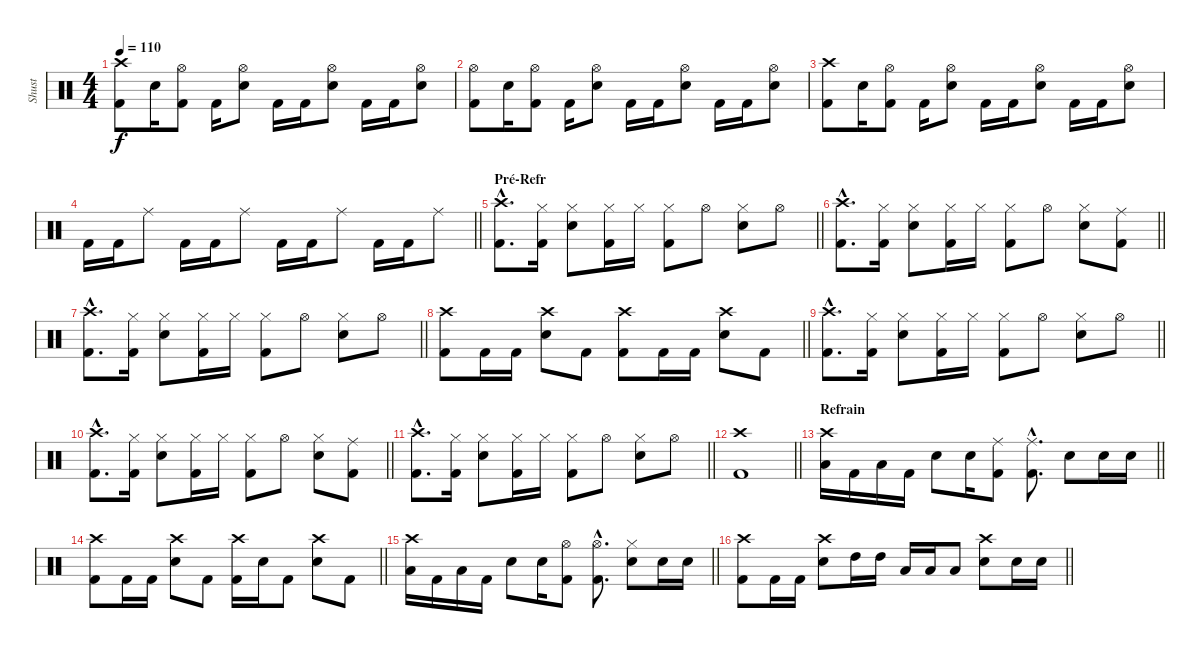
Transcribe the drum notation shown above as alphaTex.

\track ("Shust" "Shust") {instrument percussion}
\staff {score}
\articulation defaults
\ts (4 4)
\tempo 110
\clef neutral
\ks c
("Crash high (hit)" "Kick (hit) 2").8{dy f} "Electric Snare (hit)".16 ("Hi-Hat (open)" "Kick (hit) 2").8 "Kick (hit) 2".16 ("Hi-Hat (open)" "Electric Snare (hit)").8 "Kick (hit) 2".16 "Kick (hit) 2".16 ("Hi-Hat (open)" "Electric Snare (hit)").8 "Kick (hit) 2".16 "Kick (hit) 2".16 ("Hi-Hat (open)" "Electric Snare (hit)").8 |
("Hi-Hat (open)" "Kick (hit) 2").8 "Electric Snare (hit)".16 ("Hi-Hat (open)" "Kick (hit) 2").8 "Kick (hit) 2".16 ("Hi-Hat (open)" "Electric Snare (hit)").8 "Kick (hit) 2".16 "Kick (hit) 2".16 ("Hi-Hat (open)" "Electric Snare (hit)").8 "Kick (hit) 2".16 "Kick (hit) 2".16 ("Hi-Hat (open)" "Electric Snare (hit)").8 |
("Crash high (hit)" "Kick (hit) 2").8 "Electric Snare (hit)".16 ("Hi-Hat (open)" "Kick (hit) 2").8 "Kick (hit) 2".16 ("Hi-Hat (open)" "Electric Snare (hit)").8 "Kick (hit) 2".16 "Kick (hit) 2".16 ("Hi-Hat (open)" "Electric Snare (hit)").8 "Kick (hit) 2".16 "Kick (hit) 2".16 ("Hi-Hat (open)" "Electric Snare (hit)").8 |
\barLineRight lightlight "Kick (hit) 2".16 "Kick (hit) 2".16 "Ride (middle)".8 "Kick (hit) 2".16 "Kick (hit) 2".16 "Ride (middle)".8 "Kick (hit) 2".16 "Kick (hit) 2".16 "Ride (middle)".8 "Kick (hit) 2".16 "Kick (hit) 2".16 "Ride (middle)".8
|
\section ("" "Pré-Refr")
\barLineRight lightlight
("Crash high (hit)"{hac} "Kick (hit) 2"{hac}).8{d} ("Hi-Hat (closed)" "Kick (hit) 2").16 ("Hi-Hat (closed)" "Electric Snare (hit)").8 ("Hi-Hat (closed)" "Kick (hit) 2").16 "Hi-Hat (closed)".16 ("Hi-Hat (closed)" "Kick (hit) 2").8 "Hi-Hat (open)".8 ("Hi-Hat (closed)" "Electric Snare (hit)").8 "Hi-Hat (open)".8 |
\barLineRight lightlight
("Crash high (hit)"{hac} "Kick (hit) 2"{hac}).8{d} ("Hi-Hat (closed)" "Kick (hit) 2").16 ("Hi-Hat (closed)" "Electric Snare (hit)").8 ("Hi-Hat (closed)" "Kick (hit) 2").16 "Hi-Hat (closed)".16 ("Hi-Hat (closed)" "Kick (hit) 2").8 "Hi-Hat (open)".8 ("Hi-Hat (closed)" "Electric Snare (hit)").8 ("Ride (middle)" "Kick (hit) 2").8 |
\barLineRight lightlight
("Crash high (hit)"{hac} "Kick (hit) 2"{hac}).8{d} ("Hi-Hat (closed)" "Kick (hit) 2").16 ("Hi-Hat (closed)" "Electric Snare (hit)").8 ("Hi-Hat (closed)" "Kick (hit) 2").16 "Hi-Hat (closed)".16 ("Hi-Hat (closed)" "Kick (hit) 2").8 "Hi-Hat (open)".8 ("Hi-Hat (closed)" "Electric Snare (hit)").8 "Hi-Hat (open)".8 |
\barLineRight lightlight
("Crash high (hit)" "Kick (hit) 2").8 "Kick (hit) 2".16 "Kick (hit) 2".16 ("Crash high (hit)" "Electric Snare (hit)").8 "Kick (hit) 2".8 ("Crash high (hit)" "Kick (hit) 2").8 "Kick (hit) 2".16 "Kick (hit) 2".16 ("Crash high (hit)" "Electric Snare (hit)").8 "Kick (hit) 2".8 |
\barLineRight lightlight
("Crash high (hit)"{hac} "Kick (hit) 2"{hac}).8{d} ("Hi-Hat (closed)" "Kick (hit) 2").16 ("Hi-Hat (closed)" "Electric Snare (hit)").8 ("Hi-Hat (closed)" "Kick (hit) 2").16 "Hi-Hat (closed)".16 ("Hi-Hat (closed)" "Kick (hit) 2").8 "Hi-Hat (open)".8 ("Hi-Hat (closed)" "Electric Snare (hit)").8 "Hi-Hat (open)".8 |
\barLineRight lightlight
("Crash high (hit)"{hac} "Kick (hit) 2"{hac}).8{d} ("Hi-Hat (closed)" "Kick (hit) 2").16 ("Hi-Hat (closed)" "Electric Snare (hit)").8 ("Hi-Hat (closed)" "Kick (hit) 2").16 "Hi-Hat (closed)".16 ("Hi-Hat (closed)" "Kick (hit) 2").8 "Hi-Hat (open)".8 ("Hi-Hat (closed)" "Electric Snare (hit)").8 ("Ride (middle)" "Kick (hit) 2").8 |
\barLineRight lightlight
("Crash high (hit)"{hac} "Kick (hit) 2"{hac}).8{d} ("Hi-Hat (closed)" "Kick (hit) 2").16 ("Hi-Hat (closed)" "Electric Snare (hit)").8 ("Hi-Hat (closed)" "Kick (hit) 2").16 "Hi-Hat (closed)".16 ("Hi-Hat (closed)" "Kick (hit) 2").8 "Hi-Hat (open)".8 ("Hi-Hat (closed)" "Electric Snare (hit)").8 "Hi-Hat (open)".8 |
\barLineRight lightlight
("Crash high (hit)" "Kick (hit) 2").1 |
\section ("" "Refrain")
\barLineRight lightlight
("Crash high (hit)" "Low Tom (hit)").16 "Kick (hit) 2".16 "Low Tom (hit)".16 "Kick (hit) 2".16 "Electric Snare (hit)".8 "Electric Snare (hit)".16 ("Ride (middle)" "Kick (hit) 2").8 ("Ride (middle)"{hac} "Kick (hit) 2"{hac}).8{d} "Electric Snare (hit)".8 "Electric Snare (hit)".16 "Electric Snare (hit)".16 |
\barLineRight lightlight
("Crash high (hit)" "Kick (hit) 2").8 "Kick (hit) 2".16 "Kick (hit) 2".16 ("Crash high (hit)" "Electric Snare (hit)").8 "Kick (hit) 2".8 ("Crash high (hit)" "Kick (hit) 2").16 "Electric Snare (hit)".16 "Kick (hit) 2".8 ("Crash high (hit)" "Electric Snare (hit)").8 "Kick (hit) 2".8 |
\barLineRight lightlight
("Crash high (hit)" "Low Tom (hit)").16 "Kick (hit) 2".16 "Low Tom (hit)".16 "Kick (hit) 2".16 "Electric Snare (hit)".8 "Electric Snare (hit)".16 ("Hi-Hat (open)" "Kick (hit) 2").8 ("Hi-Hat (open)"{hac} "Kick (hit) 2"{hac}).8{d} ("Hi-Hat (closed)" "Electric Snare (hit)").8 "Electric Snare (hit)".16 "Electric Snare (hit)".16 |
\barLineRight lightlight
("Crash high (hit)" "Kick (hit) 2").8 "Kick (hit) 2".16 "Kick (hit) 2".16 ("Crash high (hit)" "Electric Snare (hit)").8 "High Tom (hit)".16 "High Tom (hit)".16 "Low Tom (hit)".16 "Low Tom (hit)".16 "Low Tom (hit)".8 ("Crash high (hit)" "Electric Snare (hit)").8 "Electric Snare (hit)".16 "Electric Snare (hit)".16
